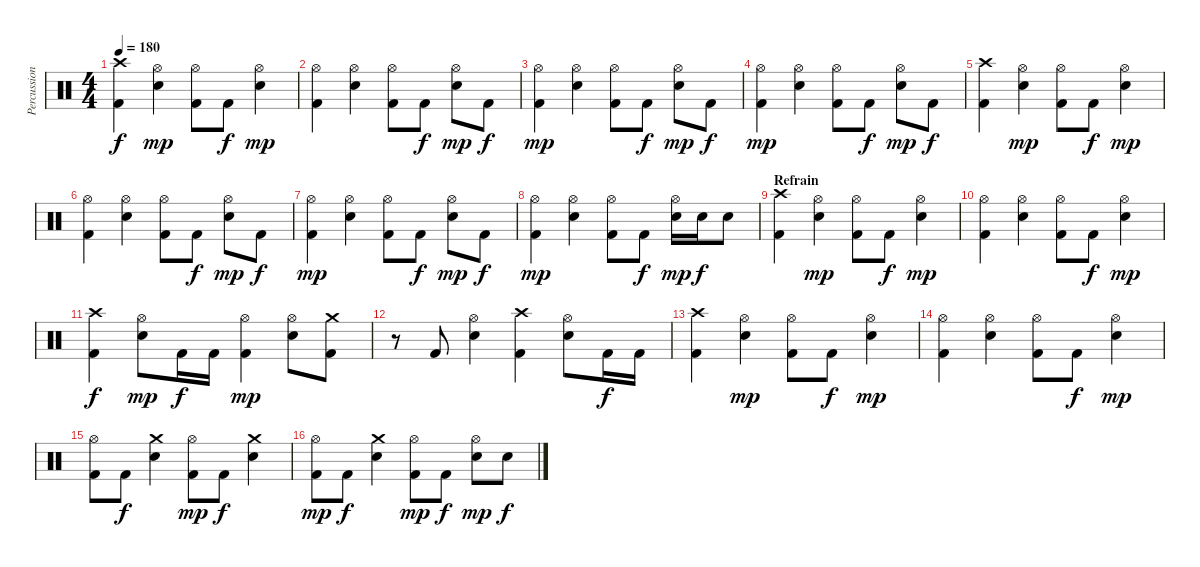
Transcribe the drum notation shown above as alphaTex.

\track ("Percussions" "Percussion") {instrument percussion}
\staff {score}
\articulation defaults
\ts (4 4)
\tempo 180
\clef neutral
\ks c
("Crash high (hit)" "Kick (hit) 2").4{dy f} ("Hi-Hat (open)" "Electric Snare (hit)").4{dy mp} ("Hi-Hat (open)" "Kick (hit) 2").8 "Kick (hit) 2".8{dy f} ("Hi-Hat (open)" "Electric Snare (hit)").4{dy mp} |
("Hi-Hat (open)" "Kick (hit) 2").4 ("Hi-Hat (open)" "Electric Snare (hit)").4 ("Hi-Hat (open)" "Kick (hit) 2").8 "Kick (hit) 2".8{dy f} ("Hi-Hat (open)" "Electric Snare (hit)").8{dy mp} "Kick (hit) 2".8{dy f} |
("Hi-Hat (open)" "Kick (hit) 2").4{dy mp} ("Hi-Hat (open)" "Electric Snare (hit)").4 ("Hi-Hat (open)" "Kick (hit) 2").8 "Kick (hit) 2".8{dy f} ("Hi-Hat (open)" "Electric Snare (hit)").8{dy mp} "Kick (hit) 2".8{dy f} |
("Hi-Hat (open)" "Kick (hit) 2").4{dy mp} ("Hi-Hat (open)" "Electric Snare (hit)").4 ("Hi-Hat (open)" "Kick (hit) 2").8 "Kick (hit) 2".8{dy f} ("Hi-Hat (open)" "Electric Snare (hit)").8{dy mp} "Kick (hit) 2".8{dy f} |
("Crash high (hit)" "Kick (hit) 2").4 ("Hi-Hat (open)" "Electric Snare (hit)").4{dy mp} ("Hi-Hat (open)" "Kick (hit) 2").8 "Kick (hit) 2".8{dy f} ("Hi-Hat (open)" "Electric Snare (hit)").4{dy mp} |
("Hi-Hat (open)" "Kick (hit) 2").4 ("Hi-Hat (open)" "Electric Snare (hit)").4 ("Hi-Hat (open)" "Kick (hit) 2").8 "Kick (hit) 2".8{dy f} ("Hi-Hat (open)" "Electric Snare (hit)").8{dy mp} "Kick (hit) 2".8{dy f} |
("Hi-Hat (open)" "Kick (hit) 2").4{dy mp} ("Hi-Hat (open)" "Electric Snare (hit)").4 ("Hi-Hat (open)" "Kick (hit) 2").8 "Kick (hit) 2".8{dy f} ("Hi-Hat (open)" "Electric Snare (hit)").8{dy mp} "Kick (hit) 2".8{dy f} |
("Hi-Hat (open)" "Kick (hit) 2").4{dy mp} ("Hi-Hat (open)" "Electric Snare (hit)").4 ("Hi-Hat (open)" "Kick (hit) 2").8 "Kick (hit) 2".8{dy f} ("Hi-Hat (open)" "Electric Snare (hit)").16{dy mp} "Electric Snare (hit)".16{dy f} "Electric Snare (hit)".8 |
\section ("" "Refrain")
("Crash high (hit)" "Kick (hit) 2").4 ("Hi-Hat (open)" "Electric Snare (hit)").4{dy mp} ("Hi-Hat (open)" "Kick (hit) 2").8 "Kick (hit) 2".8{dy f} ("Hi-Hat (open)" "Electric Snare (hit)").4{dy mp} |
("Hi-Hat (open)" "Kick (hit) 2").4 ("Hi-Hat (open)" "Electric Snare (hit)").4 ("Hi-Hat (open)" "Kick (hit) 2").8 "Kick (hit) 2".8{dy f} ("Hi-Hat (open)" "Electric Snare (hit)").4{dy mp} |
("Crash high (hit)" "Kick (hit) 2").4{dy f} ("Hi-Hat (open)" "Electric Snare (hit)").8{dy mp} "Kick (hit) 2".16{dy f} "Kick (hit) 2".16 ("Hi-Hat (open)" "Kick (hit) 2").4{dy mp} ("Hi-Hat (open)" "Electric Snare (hit)").8 ("Crash medium (hit)" "Kick (hit) 2").8 |
r.8 "Kick (hit) 2".8 ("Hi-Hat (open)" "Electric Snare (hit)").4 ("Crash high (hit)" "Kick (hit) 2").4 ("Hi-Hat (open)" "Electric Snare (hit)").8 "Kick (hit) 2".16{dy f} "Kick (hit) 2".16 |
("Crash high (hit)" "Kick (hit) 2").4 ("Hi-Hat (open)" "Electric Snare (hit)").4{dy mp} ("Hi-Hat (open)" "Kick (hit) 2").8 "Kick (hit) 2".8{dy f} ("Hi-Hat (open)" "Electric Snare (hit)").4{dy mp} |
("Hi-Hat (open)" "Kick (hit) 2").4 ("Hi-Hat (open)" "Electric Snare (hit)").4 ("Hi-Hat (open)" "Kick (hit) 2").8 "Kick (hit) 2".8{dy f} ("Hi-Hat (open)" "Electric Snare (hit)").4{dy mp} |
("Hi-Hat (open)" "Kick (hit) 2").8 "Kick (hit) 2".8{dy f} ("Crash medium (hit)" "Electric Snare (hit)").4 ("Hi-Hat (open)" "Kick (hit) 2").8{dy mp} "Kick (hit) 2".8{dy f} ("Crash medium (hit)" "Electric Snare (hit)").4 |
("Hi-Hat (open)" "Kick (hit) 2").8{dy mp} "Kick (hit) 2".8{dy f} ("Crash medium (hit)" "Electric Snare (hit)").4 ("Hi-Hat (open)" "Kick (hit) 2").8{dy mp} "Kick (hit) 2".8{dy f} ("Hi-Hat (open)" "Electric Snare (hit)").8{dy mp} "Electric Snare (hit)".8{dy f}
